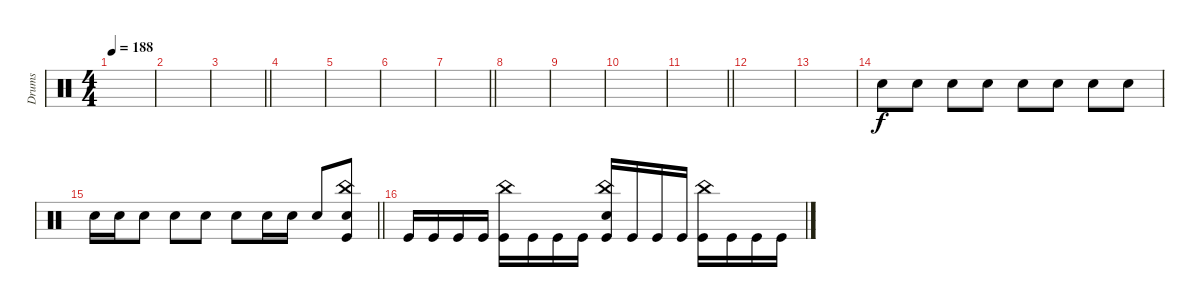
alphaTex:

\track ("Drums" "Drums") {instrument percussion}
\staff
\articulation defaults
\ts (4 4)
\tempo 188
\clef neutral
\ks c
|
|
\barLineRight lightlight
|
|
|
|
\barLineRight lightlight
|
|
|
|
\barLineRight lightlight
|
|
|
"Electric Snare (hit)".8 "Electric Snare (hit)".8 "Electric Snare (hit)".8 "Electric Snare (hit)".8 "Electric Snare (hit)".8 "Electric Snare (hit)".8 "Electric Snare (hit)".8 "Electric Snare (hit)".8 |
\barLineRight lightlight "Electric Snare (hit)".16 "Electric Snare (hit)".16 "Electric Snare (hit)".8 "Electric Snare (hit)".8 "Electric Snare (hit)".8 "Electric Snare (hit)".8 "Electric Snare (hit)".16 "Electric Snare (hit)".16 "Electric Snare (hit)".8
("China (hit)" "Electric Snare (hit)" "Kick (hit)").8 |
\section ("" "")
"Kick (hit)".16 "Kick (hit)".16 "Kick (hit)".16 "Kick (hit)".16 ("China (hit)" "Kick (hit)").16 "Kick (hit)".16 "Kick (hit)".16 "Kick (hit)".16 ("China (hit)" "Electric Snare (hit)" "Kick (hit)").16 "Kick (hit)".16 "Kick (hit)".16 "Kick (hit)".16 ("China (hit)" "Kick (hit)").16 "Kick (hit)".16 "Kick (hit)".16 "Kick (hit)".16
